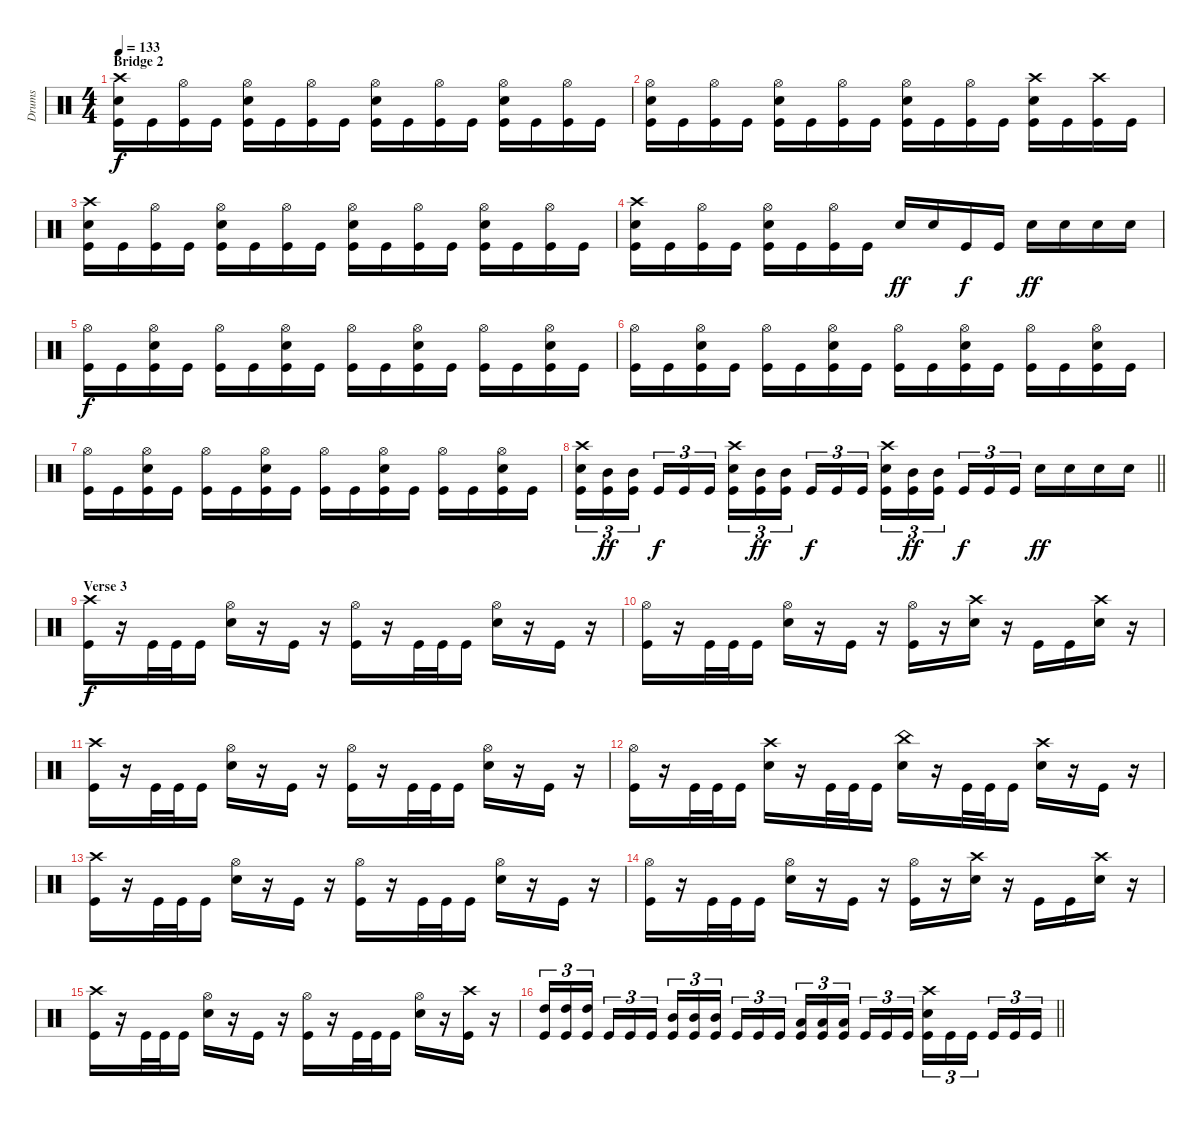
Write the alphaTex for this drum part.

\track ("Drums" "Drums") {instrument percussion}
\staff {score}
\articulation defaults
\ts (4 4)
\section ("" "Bridge 2")
\tempo 133
\clef neutral
\ks c
("Crash high (hit)" "Snare (hit) 2" "Kick (hit)").16{dy f volume 12} "Kick (hit)".16 ("Hi-Hat (open)" "Kick (hit)").16 "Kick (hit)".16 ("Hi-Hat (open)" "Snare (hit) 2" "Kick (hit)").16 "Kick (hit)".16 ("Hi-Hat (open)" "Kick (hit)").16 "Kick (hit)".16 ("Hi-Hat (open)" "Snare (hit) 2" "Kick (hit)").16 "Kick (hit)".16 ("Hi-Hat (open)" "Kick (hit)").16 "Kick (hit)".16 ("Hi-Hat (open)" "Snare (hit) 2" "Kick (hit)").16 "Kick (hit)".16 ("Hi-Hat (open)" "Kick (hit)").16 "Kick (hit)".16 |
("Hi-Hat (open)" "Snare (hit) 2" "Kick (hit)").16 "Kick (hit)".16 ("Hi-Hat (open)" "Kick (hit)").16 "Kick (hit)".16 ("Hi-Hat (open)" "Snare (hit) 2" "Kick (hit)").16 "Kick (hit)".16 ("Hi-Hat (open)" "Kick (hit)").16 "Kick (hit)".16 ("Hi-Hat (open)" "Snare (hit) 2" "Kick (hit)").16 "Kick (hit)".16 ("Hi-Hat (open)" "Kick (hit)").16 "Kick (hit)".16 ("Crash high (hit)" "Snare (hit) 2" "Kick (hit)").16 "Kick (hit)".16 ("Crash high (hit)" "Kick (hit)").16 "Kick (hit)".16 |
("Crash high (hit)" "Snare (hit) 2" "Kick (hit)").16 "Kick (hit)".16 ("Hi-Hat (open)" "Kick (hit)").16 "Kick (hit)".16 ("Hi-Hat (open)" "Snare (hit) 2" "Kick (hit)").16 "Kick (hit)".16 ("Hi-Hat (open)" "Kick (hit)").16 "Kick (hit)".16 ("Hi-Hat (open)" "Snare (hit) 2" "Kick (hit)").16 "Kick (hit)".16 ("Hi-Hat (open)" "Kick (hit)").16 "Kick (hit)".16 ("Hi-Hat (open)" "Snare (hit) 2" "Kick (hit)").16 "Kick (hit)".16 ("Hi-Hat (open)" "Kick (hit)").16 "Kick (hit)".16 |
("Crash high (hit)" "Snare (hit) 2" "Kick (hit)").16 "Kick (hit)".16 ("Hi-Hat (open)" "Kick (hit)").16 "Kick (hit)".16 ("Hi-Hat (open)" "Snare (hit) 2" "Kick (hit)").16 "Kick (hit)".16 ("Hi-Hat (open)" "Kick (hit)").16 "Kick (hit)".16 "Snare (hit) 2".16{dy ff} "Snare (hit) 2".16 "Kick (hit)".16{dy f} "Kick (hit)".16 "Snare (hit) 2".16{dy ff} "Snare (hit) 2".16 "Snare (hit) 2".16 "Snare (hit) 2".16 |
("Hi-Hat (open)" "Kick (hit)").16{dy f} "Kick (hit)".16 ("Hi-Hat (open)" "Snare (hit) 2" "Kick (hit)").16 "Kick (hit)".16 ("Hi-Hat (open)" "Kick (hit)").16 "Kick (hit)".16 ("Hi-Hat (open)" "Snare (hit) 2" "Kick (hit)").16 "Kick (hit)".16 ("Hi-Hat (open)" "Kick (hit)").16 "Kick (hit)".16 ("Hi-Hat (open)" "Snare (hit) 2" "Kick (hit)").16 "Kick (hit)".16 ("Hi-Hat (open)" "Kick (hit)").16 "Kick (hit)".16 ("Hi-Hat (open)" "Snare (hit) 2" "Kick (hit)").16 "Kick (hit)".16 |
("Hi-Hat (open)" "Kick (hit)").16 "Kick (hit)".16 ("Hi-Hat (open)" "Snare (hit) 2" "Kick (hit)").16 "Kick (hit)".16 ("Hi-Hat (open)" "Kick (hit)").16 "Kick (hit)".16 ("Hi-Hat (open)" "Snare (hit) 2" "Kick (hit)").16 "Kick (hit)".16 ("Hi-Hat (open)" "Kick (hit)").16 "Kick (hit)".16 ("Hi-Hat (open)" "Snare (hit) 2" "Kick (hit)").16 "Kick (hit)".16 ("Hi-Hat (open)" "Kick (hit)").16 "Kick (hit)".16 ("Hi-Hat (open)" "Snare (hit) 2" "Kick (hit)").16 "Kick (hit)".16 |
("Hi-Hat (open)" "Kick (hit)").16 "Kick (hit)".16 ("Hi-Hat (open)" "Snare (hit) 2" "Kick (hit)").16 "Kick (hit)".16 ("Hi-Hat (open)" "Kick (hit)").16 "Kick (hit)".16 ("Hi-Hat (open)" "Snare (hit) 2" "Kick (hit)").16 "Kick (hit)".16 ("Hi-Hat (open)" "Kick (hit)").16 "Kick (hit)".16 ("Hi-Hat (open)" "Snare (hit) 2" "Kick (hit)").16 "Kick (hit)".16 ("Hi-Hat (open)" "Kick (hit)").16 "Kick (hit)".16 ("Hi-Hat (open)" "Snare (hit) 2" "Kick (hit)").16 "Kick (hit)".16 |
\barLineRight lightlight
("Crash high (hit)" "Snare (hit) 2" "Kick (hit)").16{tu (3 2)} ("Mid Tom (hit)" "Kick (hit)").16{tu (3 2) dy ff} ("Mid Tom (hit)" "Kick (hit)").16{tu (3 2) beam splitsecondary} "Kick (hit)".16{tu (3 2) dy f} "Kick (hit)".16{tu (3 2)} "Kick (hit)".16{tu (3 2)} ("Crash high (hit)" "Snare (hit) 2" "Kick (hit)").16{tu (3 2)} ("Mid Tom (hit)" "Kick (hit)").16{tu (3 2) dy ff} ("Mid Tom (hit)" "Kick (hit)").16{tu (3 2) beam splitsecondary} "Kick (hit)".16{tu (3 2) dy f} "Kick (hit)".16{tu (3 2)} "Kick (hit)".16{tu (3 2)} ("Crash high (hit)" "Snare (hit) 2" "Kick (hit)").16{tu (3 2)} ("Mid Tom (hit)" "Kick (hit)").16{tu (3 2) dy ff} ("Mid Tom (hit)" "Kick (hit)").16{tu (3 2) beam splitsecondary} "Kick (hit)".16{tu (3 2) dy f} "Kick (hit)".16{tu (3 2)} "Kick (hit)".16{tu (3 2)} "Snare (hit) 2".16{dy ff} "Snare (hit) 2".16 "Snare (hit) 2".16 "Snare (hit) 2".16 |
\section ("" "Verse 3")
("Crash high (hit)" "Kick (hit)").16{dy f} r.16 "Kick (hit)".32 "Kick (hit)".32 "Kick (hit)".16 ("Hi-Hat (open)" "Snare (hit) 2").16 r.16 "Kick (hit)".16 r.16 ("Hi-Hat (open)" "Kick (hit)").16 r.16 "Kick (hit)".32 "Kick (hit)".32 "Kick (hit)".16 ("Hi-Hat (open)" "Snare (hit) 2").16 r.16 "Kick (hit)".16 r.16 |
("Hi-Hat (open)" "Kick (hit)").16 r.16 "Kick (hit)".32 "Kick (hit)".32 "Kick (hit)".16 ("Hi-Hat (open)" "Snare (hit) 2").16 r.16 "Kick (hit)".16 r.16 ("Hi-Hat (open)" "Kick (hit)").16 r.16 ("Crash high (hit)" "Snare (hit) 2").16 r.16 "Kick (hit)".16 "Kick (hit)".16 ("Crash high (hit)" "Snare (hit) 2").16 r.16 |
("Crash high (hit)" "Kick (hit)").16 r.16 "Kick (hit)".32 "Kick (hit)".32 "Kick (hit)".16 ("Hi-Hat (open)" "Snare (hit) 2").16 r.16 "Kick (hit)".16 r.16 ("Hi-Hat (open)" "Kick (hit)").16 r.16 "Kick (hit)".32 "Kick (hit)".32 "Kick (hit)".16 ("Hi-Hat (open)" "Snare (hit) 2").16 r.16 "Kick (hit)".16 r.16 |
("Hi-Hat (open)" "Kick (hit)").16 r.16 "Kick (hit)".32 "Kick (hit)".32 "Kick (hit)".16 ("Crash high (hit)" "Snare (hit) 2").16 r.16 "Kick (hit)".32 "Kick (hit)".32 "Kick (hit)".16 ("China (hit)" "Snare (hit) 2").16 r.16 "Kick (hit)".32 "Kick (hit)".32 "Kick (hit)".16 ("Crash high (hit)" "Snare (hit) 2").16 r.16 "Kick (hit)".16 r.16 |
("Crash high (hit)" "Kick (hit)").16 r.16 "Kick (hit)".32 "Kick (hit)".32 "Kick (hit)".16 ("Hi-Hat (open)" "Snare (hit) 2").16 r.16 "Kick (hit)".16 r.16 ("Hi-Hat (open)" "Kick (hit)").16 r.16 "Kick (hit)".32 "Kick (hit)".32 "Kick (hit)".16 ("Hi-Hat (open)" "Snare (hit) 2").16 r.16 "Kick (hit)".16 r.16 |
("Hi-Hat (open)" "Kick (hit)").16 r.16 "Kick (hit)".32 "Kick (hit)".32 "Kick (hit)".16 ("Hi-Hat (open)" "Snare (hit) 2").16 r.16 "Kick (hit)".16 r.16 ("Hi-Hat (open)" "Kick (hit)").16 r.16 ("Crash high (hit)" "Snare (hit) 2").16 r.16 "Kick (hit)".16 "Kick (hit)".16 ("Crash high (hit)" "Snare (hit) 2").16 r.16 |
("Crash high (hit)" "Kick (hit)").16 r.16 "Kick (hit)".32 "Kick (hit)".32 "Kick (hit)".16 ("Hi-Hat (open)" "Snare (hit) 2").16 r.16 "Kick (hit)".16 r.16 ("Hi-Hat (open)" "Kick (hit)").16 r.16 "Kick (hit)".32 "Kick (hit)".32 "Kick (hit)".16 ("Hi-Hat (open)" "Snare (hit) 2").16 r.16 ("Crash high (hit)" "Kick (hit)").16 r.16 |
\barLineRight lightlight
("High Tom (hit)" "Kick (hit)").16{tu (3 2)} ("High Tom (hit)" "Kick (hit)").16{tu (3 2)} ("High Tom (hit)" "Kick (hit)").16{tu (3 2) beam splitsecondary} "Kick (hit)".16{tu (3 2)} "Kick (hit)".16{tu (3 2)} "Kick (hit)".16{tu (3 2)} ("Mid Tom (hit)" "Kick (hit)").16{tu (3 2)} ("Mid Tom (hit)" "Kick (hit)").16{tu (3 2)} ("Mid Tom (hit)" "Kick (hit)").16{tu (3 2) beam splitsecondary} "Kick (hit)".16{tu (3 2)} "Kick (hit)".16{tu (3 2)} "Kick (hit)".16{tu (3 2)} ("Low Tom (hit)" "Kick (hit)").16{tu (3 2)} ("Low Tom (hit)" "Kick (hit)").16{tu (3 2)} ("Low Tom (hit)" "Kick (hit)").16{tu (3 2) beam splitsecondary} "Kick (hit)".16{tu (3 2)} "Kick (hit)".16{tu (3 2)} "Kick (hit)".16{tu (3 2)} ("Crash high (hit)" "Snare (hit) 2" "Kick (hit)").16{tu (3 2)} "Kick (hit)".16{tu (3 2)} "Kick (hit)".16{tu (3 2) beam splitsecondary} "Kick (hit)".16{tu (3 2)} "Kick (hit)".16{tu (3 2)} "Kick (hit)".16{tu (3 2)}
